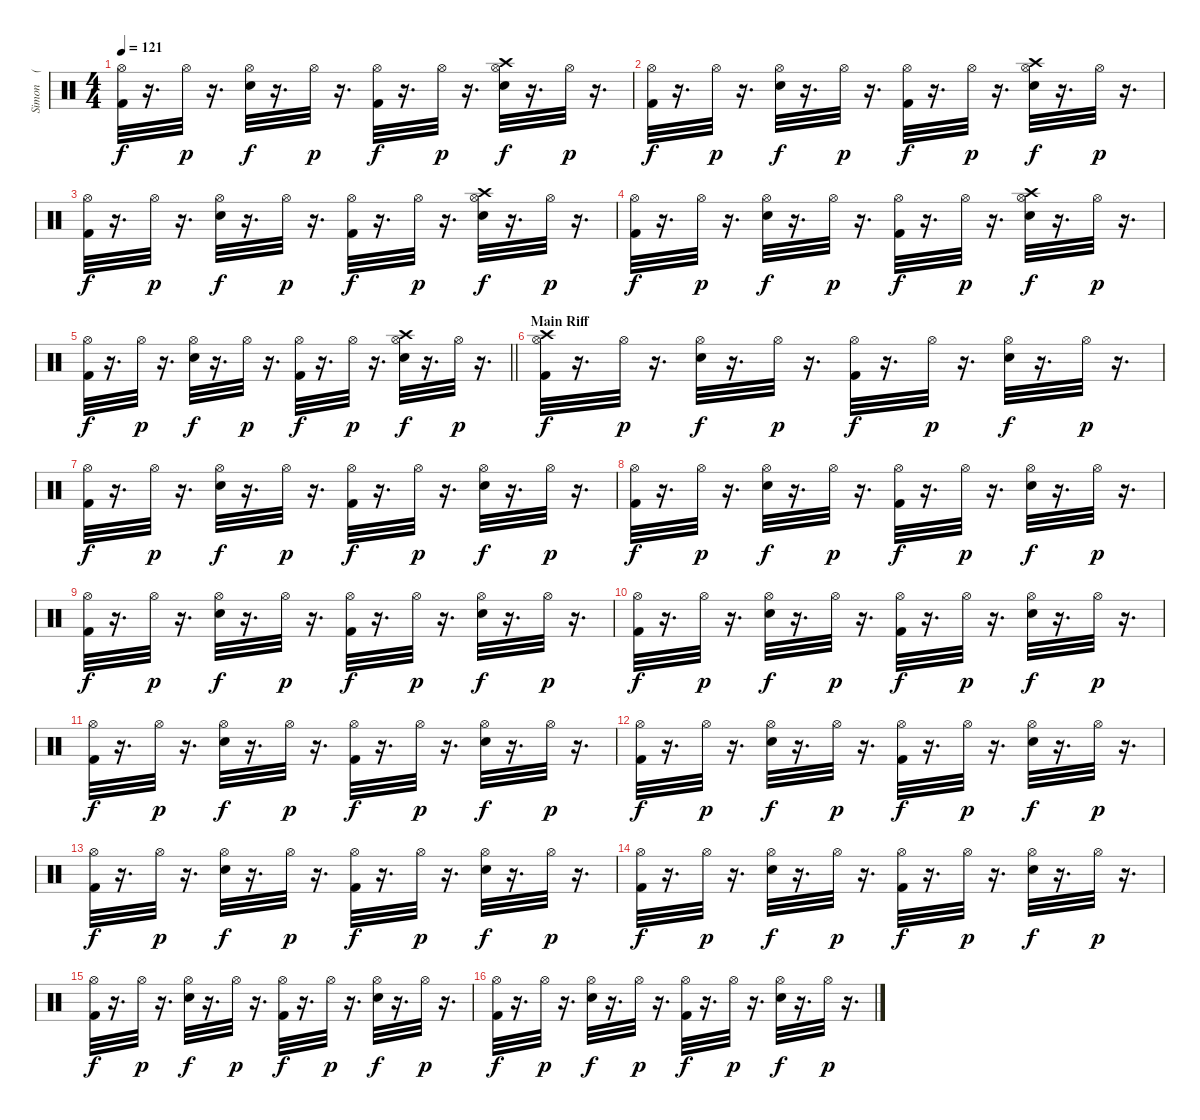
\track ("Simon    (Drums)" "Simon    (") {instrument percussion}
\staff {score}
\articulation defaults
\ts (4 4)
\tempo 121
\clef neutral
\ks c
("Hi-Hat (open)" "Kick (hit) 2").32{dy f} r.16{d} "Hi-Hat (open)".32{dy p} r.16{d} ("Hi-Hat (open)" "Electric Snare (hit)").32{dy f} r.16{d} "Hi-Hat (open)".32{dy p} r.16{d} ("Hi-Hat (open)" "Kick (hit) 2").32{dy f} r.16{d} "Hi-Hat (open)".32{dy p} r.16{d} ("Crash high (hit)" "Hi-Hat (open)" "Electric Snare (hit)").32{dy f} r.16{d} "Hi-Hat (open)".32{dy p} r.16{d} |
("Hi-Hat (open)" "Kick (hit) 2").32{dy f} r.16{d} "Hi-Hat (open)".32{dy p} r.16{d} ("Hi-Hat (open)" "Electric Snare (hit)").32{dy f} r.16{d} "Hi-Hat (open)".32{dy p} r.16{d} ("Hi-Hat (open)" "Kick (hit) 2").32{dy f} r.16{d} "Hi-Hat (open)".32{dy p} r.16{d} ("Crash high (hit)" "Hi-Hat (open)" "Electric Snare (hit)").32{dy f} r.16{d} "Hi-Hat (open)".32{dy p} r.16{d} |
("Hi-Hat (open)" "Kick (hit) 2").32{dy f} r.16{d} "Hi-Hat (open)".32{dy p} r.16{d} ("Hi-Hat (open)" "Electric Snare (hit)").32{dy f} r.16{d} "Hi-Hat (open)".32{dy p} r.16{d} ("Hi-Hat (open)" "Kick (hit) 2").32{dy f} r.16{d} "Hi-Hat (open)".32{dy p} r.16{d} ("Crash high (hit)" "Hi-Hat (open)" "Electric Snare (hit)").32{dy f} r.16{d} "Hi-Hat (open)".32{dy p} r.16{d} |
("Hi-Hat (open)" "Kick (hit) 2").32{dy f} r.16{d} "Hi-Hat (open)".32{dy p} r.16{d} ("Hi-Hat (open)" "Electric Snare (hit)").32{dy f} r.16{d} "Hi-Hat (open)".32{dy p} r.16{d} ("Hi-Hat (open)" "Kick (hit) 2").32{dy f} r.16{d} "Hi-Hat (open)".32{dy p} r.16{d} ("Crash high (hit)" "Hi-Hat (open)" "Electric Snare (hit)").32{dy f} r.16{d} "Hi-Hat (open)".32{dy p} r.16{d} |
\barLineRight lightlight
("Hi-Hat (open)" "Kick (hit) 2").32{dy f} r.16{d} "Hi-Hat (open)".32{dy p} r.16{d} ("Hi-Hat (open)" "Electric Snare (hit)").32{dy f} r.16{d} "Hi-Hat (open)".32{dy p} r.16{d} ("Hi-Hat (open)" "Kick (hit) 2").32{dy f} r.16{d} "Hi-Hat (open)".32{dy p} r.16{d} ("Crash high (hit)" "Hi-Hat (open)" "Electric Snare (hit)").32{dy f} r.16{d} "Hi-Hat (open)".32{dy p} r.16{d} |
\section ("" "Main Riff")
("Crash high (hit)" "Hi-Hat (open)" "Kick (hit) 2").32{dy f} r.16{d} "Hi-Hat (open)".32{dy p} r.16{d} ("Hi-Hat (open)" "Electric Snare (hit)").32{dy f} r.16{d} "Hi-Hat (open)".32{dy p} r.16{d} ("Hi-Hat (open)" "Kick (hit) 2").32{dy f} r.16{d} "Hi-Hat (open)".32{dy p} r.16{d} ("Hi-Hat (open)" "Electric Snare (hit)").32{dy f} r.16{d} "Hi-Hat (open)".32{dy p} r.16{d} |
("Hi-Hat (open)" "Kick (hit) 2").32{dy f} r.16{d} "Hi-Hat (open)".32{dy p} r.16{d} ("Hi-Hat (open)" "Electric Snare (hit)").32{dy f} r.16{d} "Hi-Hat (open)".32{dy p} r.16{d} ("Hi-Hat (open)" "Kick (hit) 2").32{dy f} r.16{d} "Hi-Hat (open)".32{dy p} r.16{d} ("Hi-Hat (open)" "Electric Snare (hit)").32{dy f} r.16{d} "Hi-Hat (open)".32{dy p} r.16{d} |
("Hi-Hat (open)" "Kick (hit) 2").32{dy f} r.16{d} "Hi-Hat (open)".32{dy p} r.16{d} ("Hi-Hat (open)" "Electric Snare (hit)").32{dy f} r.16{d} "Hi-Hat (open)".32{dy p} r.16{d} ("Hi-Hat (open)" "Kick (hit) 2").32{dy f} r.16{d} "Hi-Hat (open)".32{dy p} r.16{d} ("Hi-Hat (open)" "Electric Snare (hit)").32{dy f} r.16{d} "Hi-Hat (open)".32{dy p} r.16{d} |
("Hi-Hat (open)" "Kick (hit) 2").32{dy f} r.16{d} "Hi-Hat (open)".32{dy p} r.16{d} ("Hi-Hat (open)" "Electric Snare (hit)").32{dy f} r.16{d} "Hi-Hat (open)".32{dy p} r.16{d} ("Hi-Hat (open)" "Kick (hit) 2").32{dy f} r.16{d} "Hi-Hat (open)".32{dy p} r.16{d} ("Hi-Hat (open)" "Electric Snare (hit)").32{dy f} r.16{d} "Hi-Hat (open)".32{dy p} r.16{d} |
("Hi-Hat (open)" "Kick (hit) 2").32{dy f} r.16{d} "Hi-Hat (open)".32{dy p} r.16{d} ("Hi-Hat (open)" "Electric Snare (hit)").32{dy f} r.16{d} "Hi-Hat (open)".32{dy p} r.16{d} ("Hi-Hat (open)" "Kick (hit) 2").32{dy f} r.16{d} "Hi-Hat (open)".32{dy p} r.16{d} ("Hi-Hat (open)" "Electric Snare (hit)").32{dy f} r.16{d} "Hi-Hat (open)".32{dy p} r.16{d} |
("Hi-Hat (open)" "Kick (hit) 2").32{dy f} r.16{d} "Hi-Hat (open)".32{dy p} r.16{d} ("Hi-Hat (open)" "Electric Snare (hit)").32{dy f} r.16{d} "Hi-Hat (open)".32{dy p} r.16{d} ("Hi-Hat (open)" "Kick (hit) 2").32{dy f} r.16{d} "Hi-Hat (open)".32{dy p} r.16{d} ("Hi-Hat (open)" "Electric Snare (hit)").32{dy f} r.16{d} "Hi-Hat (open)".32{dy p} r.16{d} |
("Hi-Hat (open)" "Kick (hit) 2").32{dy f} r.16{d} "Hi-Hat (open)".32{dy p} r.16{d} ("Hi-Hat (open)" "Electric Snare (hit)").32{dy f} r.16{d} "Hi-Hat (open)".32{dy p} r.16{d} ("Hi-Hat (open)" "Kick (hit) 2").32{dy f} r.16{d} "Hi-Hat (open)".32{dy p} r.16{d} ("Hi-Hat (open)" "Electric Snare (hit)").32{dy f} r.16{d} "Hi-Hat (open)".32{dy p} r.16{d} |
("Hi-Hat (open)" "Kick (hit) 2").32{dy f} r.16{d} "Hi-Hat (open)".32{dy p} r.16{d} ("Hi-Hat (open)" "Electric Snare (hit)").32{dy f} r.16{d} "Hi-Hat (open)".32{dy p} r.16{d} ("Hi-Hat (open)" "Kick (hit) 2").32{dy f} r.16{d} "Hi-Hat (open)".32{dy p} r.16{d} ("Hi-Hat (open)" "Electric Snare (hit)").32{dy f} r.16{d} "Hi-Hat (open)".32{dy p} r.16{d} |
("Hi-Hat (open)" "Kick (hit) 2").32{dy f} r.16{d} "Hi-Hat (open)".32{dy p} r.16{d} ("Hi-Hat (open)" "Electric Snare (hit)").32{dy f} r.16{d} "Hi-Hat (open)".32{dy p} r.16{d} ("Hi-Hat (open)" "Kick (hit) 2").32{dy f} r.16{d} "Hi-Hat (open)".32{dy p} r.16{d} ("Hi-Hat (open)" "Electric Snare (hit)").32{dy f} r.16{d} "Hi-Hat (open)".32{dy p} r.16{d} |
("Hi-Hat (open)" "Kick (hit) 2").32{dy f} r.16{d} "Hi-Hat (open)".32{dy p} r.16{d} ("Hi-Hat (open)" "Electric Snare (hit)").32{dy f} r.16{d} "Hi-Hat (open)".32{dy p} r.16{d} ("Hi-Hat (open)" "Kick (hit) 2").32{dy f} r.16{d} "Hi-Hat (open)".32{dy p} r.16{d} ("Hi-Hat (open)" "Electric Snare (hit)").32{dy f} r.16{d} "Hi-Hat (open)".32{dy p} r.16{d} |
("Hi-Hat (open)" "Kick (hit) 2").32{dy f} r.16{d} "Hi-Hat (open)".32{dy p} r.16{d} ("Hi-Hat (open)" "Electric Snare (hit)").32{dy f} r.16{d} "Hi-Hat (open)".32{dy p} r.16{d} ("Hi-Hat (open)" "Kick (hit) 2").32{dy f} r.16{d} "Hi-Hat (open)".32{dy p} r.16{d} ("Hi-Hat (open)" "Electric Snare (hit)").32{dy f} r.16{d} "Hi-Hat (open)".32{dy p} r.16{d}
